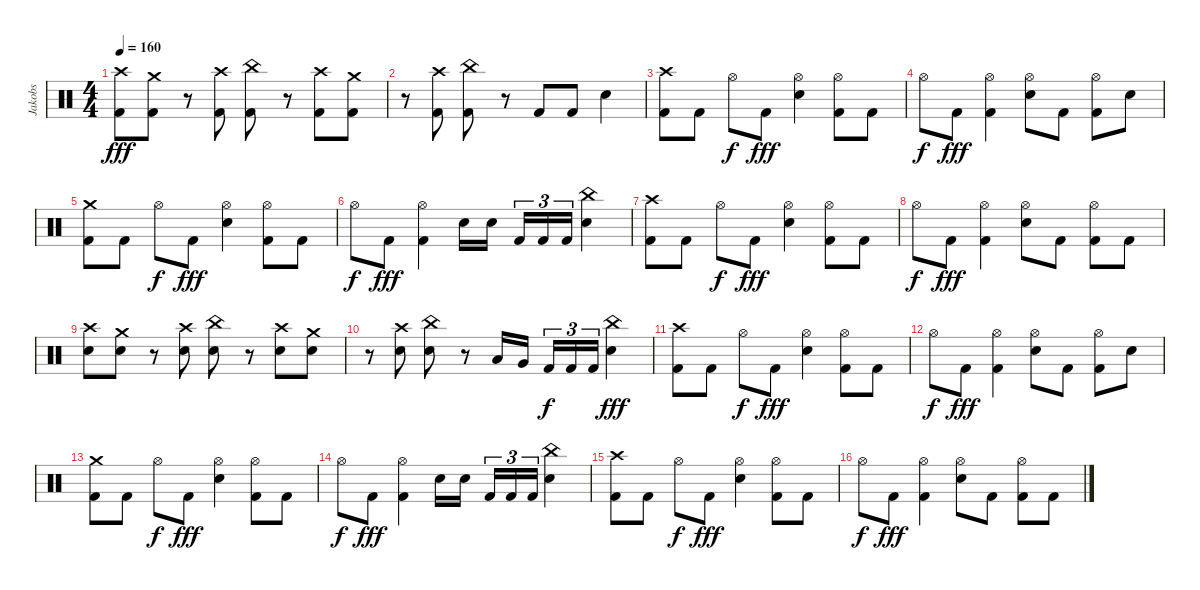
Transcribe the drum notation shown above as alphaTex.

\track ("Jakobs" "Jakobs") {instrument percussion}
\staff {score}
\articulation defaults
\ts (4 4)
\tempo 160
\clef neutral
\ks c
("Crash high (hit)" "Kick (hit) 2").8{dy fff} ("Crash medium (hit)" "Kick (hit) 2").8 r.8 ("Crash high (hit)" "Kick (hit) 2").8 ("China (hit)" "Kick (hit) 2").8 r.8 ("Crash high (hit)" "Kick (hit) 2").8 ("Crash medium (hit)" "Kick (hit) 2").8 |
r.8 ("Crash high (hit)" "Kick (hit) 2").8 ("China (hit)" "Kick (hit) 2").8 r.8 "Kick (hit) 2".8 "Kick (hit) 2".8 "Snare (hit) 2".4 |
("Crash high (hit)" "Kick (hit) 2").8 "Kick (hit) 2".8 "Hi-Hat (open)".8{dy f} "Kick (hit) 2".8{dy fff} ("Hi-Hat (open)" "Snare (hit) 2").4 ("Hi-Hat (open)" "Kick (hit) 2").8 "Kick (hit) 2".8 |
"Hi-Hat (open)".8{dy f} "Kick (hit) 2".8{dy fff} ("Hi-Hat (open)" "Kick (hit) 2").4 ("Hi-Hat (open)" "Snare (hit) 2").8 "Kick (hit) 2".8 ("Hi-Hat (open)" "Kick (hit) 2").8 "Snare (hit) 2".8 |
("Crash medium (hit)" "Kick (hit) 2").8 "Kick (hit) 2".8 "Hi-Hat (open)".8{dy f} "Kick (hit) 2".8{dy fff} ("Hi-Hat (open)" "Snare (hit) 2").4 ("Hi-Hat (open)" "Kick (hit) 2").8 "Kick (hit) 2".8 |
"Hi-Hat (open)".8{dy f} "Kick (hit) 2".8{dy fff} ("Hi-Hat (open)" "Kick (hit) 2").4 "Snare (hit) 2".16 "Snare (hit) 2".16 "Kick (hit) 2".16{tu (3 2)} "Kick (hit) 2".16{tu (3 2)} "Kick (hit) 2".16{tu (3 2)} ("China (hit)" "Snare (hit) 2").4 |
("Crash high (hit)" "Kick (hit) 2").8 "Kick (hit) 2".8 "Hi-Hat (open)".8{dy f} "Kick (hit) 2".8{dy fff} ("Hi-Hat (open)" "Snare (hit) 2").4 ("Hi-Hat (open)" "Kick (hit) 2").8 "Kick (hit) 2".8 |
"Hi-Hat (open)".8{dy f} "Kick (hit) 2".8{dy fff} ("Hi-Hat (open)" "Kick (hit) 2").4 ("Hi-Hat (open)" "Snare (hit) 2").8 "Kick (hit) 2".8 ("Hi-Hat (open)" "Kick (hit) 2").8 "Kick (hit) 2".8 |
("Crash high (hit)" "Snare (hit) 2").8 ("Crash medium (hit)" "Snare (hit) 2").8 r.8 ("Crash high (hit)" "Snare (hit) 2").8 ("China (hit)" "Snare (hit) 2").8 r.8 ("Crash high (hit)" "Snare (hit) 2").8 ("Crash medium (hit)" "Snare (hit) 2").8 |
r.8 ("Crash high (hit)" "Snare (hit) 2").8 ("China (hit)" "Snare (hit) 2").8 r.8 "Low Tom (hit)".16 "Very Low Tom (hit)".16 "Kick (hit) 2".16{tu (3 2) dy f} "Kick (hit) 2".16{tu (3 2)} "Kick (hit) 2".16{tu (3 2)} ("China (hit)" "Snare (hit) 2").4{dy fff} |
("Crash high (hit)" "Kick (hit) 2").8 "Kick (hit) 2".8 "Hi-Hat (open)".8{dy f} "Kick (hit) 2".8{dy fff} ("Hi-Hat (open)" "Snare (hit) 2").4 ("Hi-Hat (open)" "Kick (hit) 2").8 "Kick (hit) 2".8 |
"Hi-Hat (open)".8{dy f} "Kick (hit) 2".8{dy fff} ("Hi-Hat (open)" "Kick (hit) 2").4 ("Hi-Hat (open)" "Snare (hit) 2").8 "Kick (hit) 2".8 ("Hi-Hat (open)" "Kick (hit) 2").8 "Snare (hit) 2".8 |
("Crash medium (hit)" "Kick (hit) 2").8 "Kick (hit) 2".8 "Hi-Hat (open)".8{dy f} "Kick (hit) 2".8{dy fff} ("Hi-Hat (open)" "Snare (hit) 2").4 ("Hi-Hat (open)" "Kick (hit) 2").8 "Kick (hit) 2".8 |
"Hi-Hat (open)".8{dy f} "Kick (hit) 2".8{dy fff} ("Hi-Hat (open)" "Kick (hit) 2").4 "Snare (hit) 2".16 "Snare (hit) 2".16 "Kick (hit) 2".16{tu (3 2)} "Kick (hit) 2".16{tu (3 2)} "Kick (hit) 2".16{tu (3 2)} ("China (hit)" "Snare (hit) 2").4 |
("Crash high (hit)" "Kick (hit) 2").8 "Kick (hit) 2".8 "Hi-Hat (open)".8{dy f} "Kick (hit) 2".8{dy fff} ("Hi-Hat (open)" "Snare (hit) 2").4 ("Hi-Hat (open)" "Kick (hit) 2").8 "Kick (hit) 2".8 |
"Hi-Hat (open)".8{dy f} "Kick (hit) 2".8{dy fff} ("Hi-Hat (open)" "Kick (hit) 2").4 ("Hi-Hat (open)" "Snare (hit) 2").8 "Kick (hit) 2".8 ("Hi-Hat (open)" "Kick (hit) 2").8 "Kick (hit) 2".8
